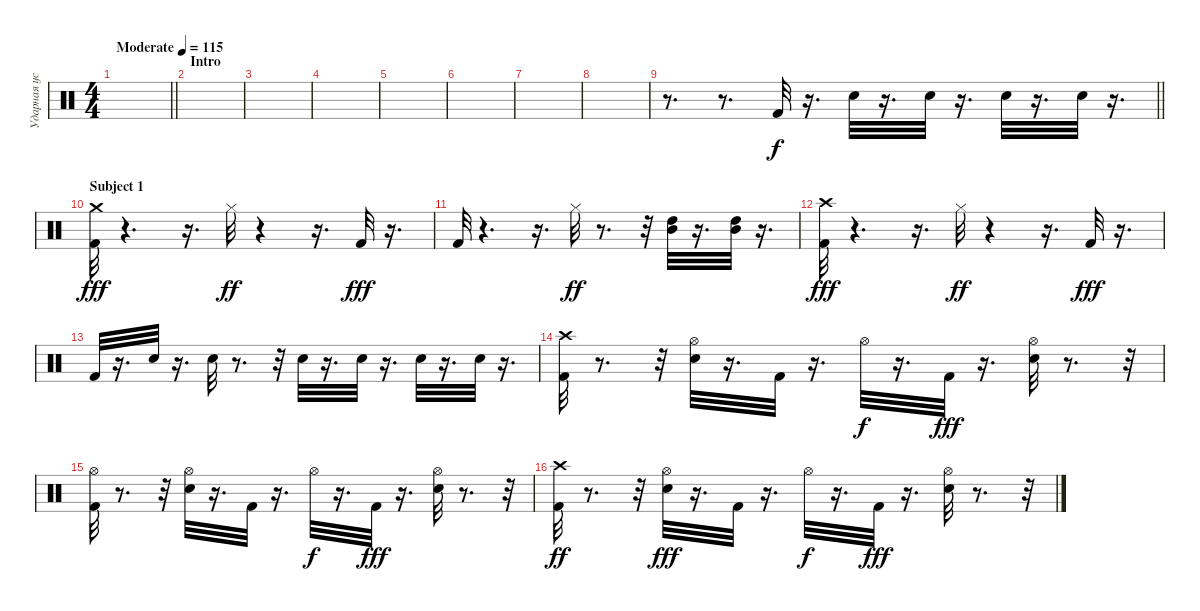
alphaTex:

\track ("Ударная установка" "Ударная ус") {instrument percussion}
\staff {score}
\articulation defaults
\ts (4 4)
\tempo (115 "Moderate")
\clef neutral
\barLineRight lightlight
\ks c
|
\section ("" "Intro")
|
|
|
|
|
|
|
\barLineRight lightlight
r.8{d} r.8{d} "Kick (hit) 2".32 r.16{d} "Snare (hit) 2".32 r.16{d} "Snare (hit) 2".32 r.16{d} "Snare (hit) 2".32 r.16{d} "Snare (hit) 2".32 r.16{d} |
\section ("" "Subject 1")
("Crash medium (hit)" "Kick (hit) 2").32{dy fff} r.4{d} r.16{d} "Hi-Hat (closed)".32{dy ff} r.4 r.16{d} "Kick (hit) 2".32{dy fff} r.16{d} |
"Kick (hit) 2".32 r.4{d} r.16{d} "Hi-Hat (closed)".32{dy ff} r.8{d} r.32 ("Mid Tom (hit)" "High Tom (hit)").32 r.16{d} ("Mid Tom (hit)" "High Tom (hit)").32 r.16{d} |
("Crash high (hit)" "Kick (hit) 2").32{dy fff} r.4{d} r.16{d} "Hi-Hat (closed)".32{dy ff} r.4 r.16{d} "Kick (hit) 2".32{dy fff} r.16{d} |
"Kick (hit) 2".32 r.16{d} "Snare (hit) 2".32 r.16{d} "Snare (hit) 2".32 r.8{d} r.32 "Snare (hit) 2".32 r.16{d} "Snare (hit) 2".32 r.16{d} "Snare (hit) 2".32 r.16{d} "Snare (hit) 2".32 r.16{d} |
("Crash high (hit)" "Kick (hit) 2").32 r.8{d} r.32 ("Hi-Hat (open)" "Snare (hit) 2").32 r.16{d} "Kick (hit) 2".32 r.16{d} "Hi-Hat (open)".32{dy f} r.16{d} "Kick (hit) 2".32{dy fff} r.16{d} ("Hi-Hat (open)" "Snare (hit) 2").32 r.8{d} r.32 |
("Hi-Hat (open)" "Kick (hit) 2").32 r.8{d} r.32 ("Hi-Hat (open)" "Snare (hit) 2").32 r.16{d} "Kick (hit) 2".32 r.16{d} "Hi-Hat (open)".32{dy f} r.16{d} "Kick (hit) 2".32{dy fff} r.16{d} ("Hi-Hat (open)" "Snare (hit) 2").32 r.8{d} r.32 |
("Kick (hit) 2" "Crash high (hit)").32{dy ff} r.8{d} r.32 ("Snare (hit) 2" "Hi-Hat (open)").32{dy fff} r.16{d} "Kick (hit) 2".32 r.16{d} "Hi-Hat (open)".32{dy f} r.16{d} "Kick (hit) 2".32{dy fff} r.16{d} ("Snare (hit) 2" "Hi-Hat (open)").32 r.8{d} r.32
